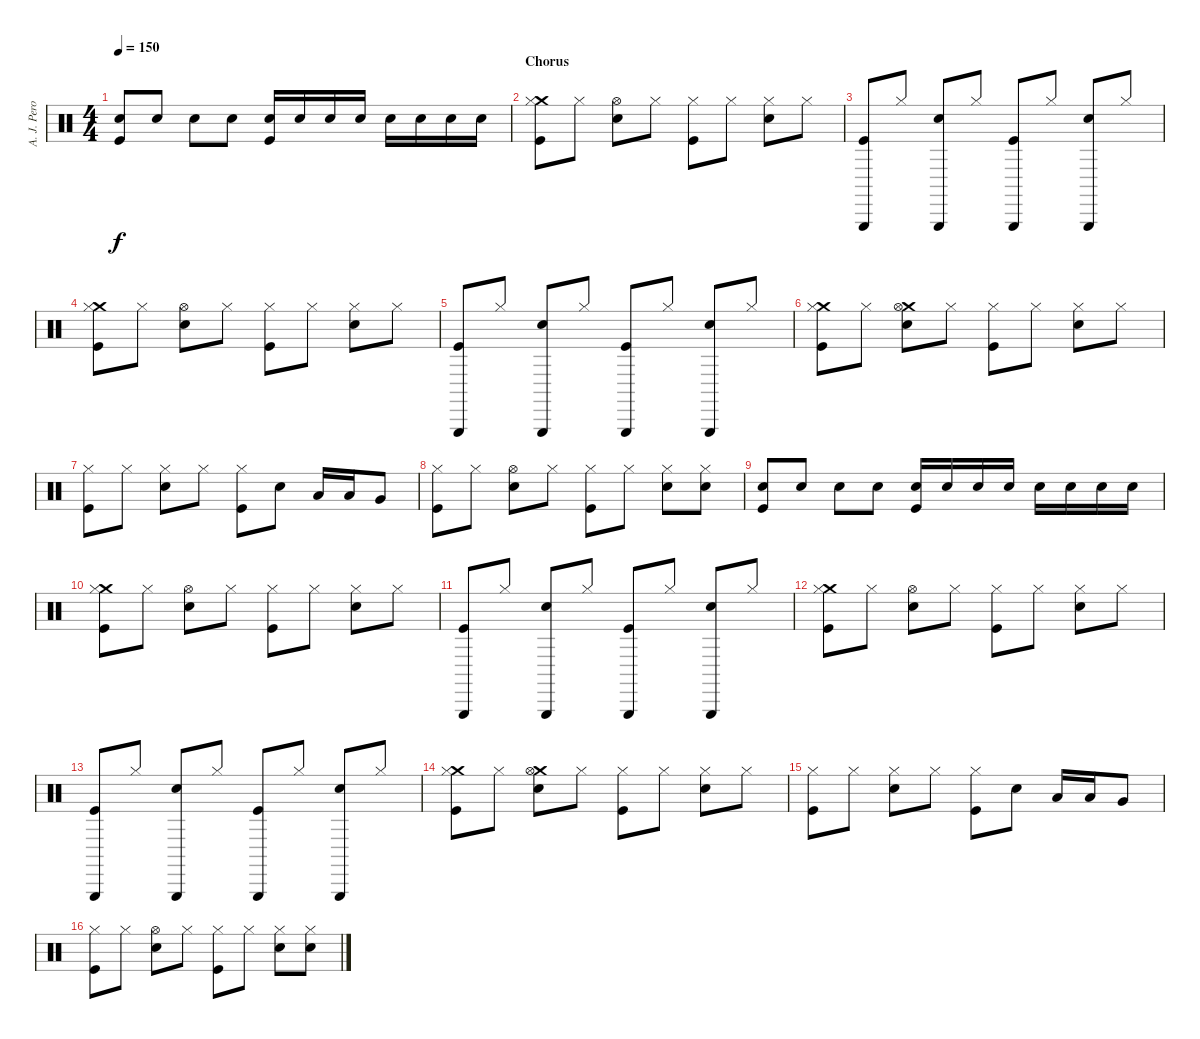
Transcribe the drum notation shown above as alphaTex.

\track ("A. J. Pero - Drums" "A. J. Pero") {instrument percussion}
\staff {score}
\articulation defaults
\ts (4 4)
\tempo 150
\clef neutral
\ks c
("Snare (hit) 2" "Kick (hit)").8{dy f} "Snare (hit) 2".8 "Snare (hit) 2".8 "Snare (hit) 2".8 ("Snare (hit) 2" "Kick (hit)").16 "Snare (hit) 2".16 "Snare (hit) 2".16 "Snare (hit) 2".16 "Snare (hit) 2".16 "Snare (hit) 2".16 "Snare (hit) 2".16 "Snare (hit) 2".16 |
\section ("" "Chorus")
("Crash medium (hit)" "Hi-Hat (closed)" "Kick (hit)").8 "Hi-Hat (closed)".8 ("Hi-Hat (open)" "Snare (hit) 2").8 "Hi-Hat (closed)".8 ("Hi-Hat (closed)" "Kick (hit)").8 "Hi-Hat (closed)".8 ("Hi-Hat (closed)" "Snare (hit) 2").8 "Hi-Hat (closed)".8 |
("Triangle (hit)" "Kick (hit)").8 "Hi-Hat (closed)".8 ("Triangle (hit)" "Snare (hit) 2").8 "Hi-Hat (closed)".8 ("Triangle (hit)" "Kick (hit)").8 "Hi-Hat (closed)".8 ("Triangle (hit)" "Snare (hit) 2").8 "Hi-Hat (closed)".8 |
("Crash medium (hit)" "Hi-Hat (closed)" "Kick (hit)").8 "Hi-Hat (closed)".8 ("Hi-Hat (open)" "Snare (hit) 2").8 "Hi-Hat (closed)".8 ("Hi-Hat (closed)" "Kick (hit)").8 "Hi-Hat (closed)".8 ("Hi-Hat (closed)" "Snare (hit) 2").8 "Hi-Hat (closed)".8 |
("Triangle (hit)" "Kick (hit)").8 "Hi-Hat (closed)".8 ("Triangle (hit)" "Snare (hit) 2").8 "Hi-Hat (closed)".8 ("Triangle (hit)" "Kick (hit)").8 "Hi-Hat (closed)".8 ("Triangle (hit)" "Snare (hit) 2").8 "Hi-Hat (closed)".8 |
("Crash medium (hit)" "Hi-Hat (closed)" "Kick (hit)").8 "Hi-Hat (closed)".8 ("Crash medium (hit)" "Hi-Hat (open)" "Snare (hit) 2").8 "Hi-Hat (closed)".8 ("Hi-Hat (closed)" "Kick (hit)").8 "Hi-Hat (closed)".8 ("Hi-Hat (closed)" "Snare (hit) 2").8 "Hi-Hat (closed)".8 |
("Hi-Hat (closed)" "Kick (hit)").8 "Hi-Hat (closed)".8 ("Hi-Hat (closed)" "Snare (hit) 2").8 "Hi-Hat (closed)".8 ("Hi-Hat (closed)" "Kick (hit)").8 "Snare (hit) 2".8 "Low Floor Tom (hit)".16 "Low Floor Tom (hit)".16 "Very Low Tom (hit)".8 |
("Hi-Hat (closed)" "Kick (hit)").8 "Hi-Hat (closed)".8 ("Hi-Hat (open)" "Snare (hit) 2").8 "Hi-Hat (closed)".8 ("Hi-Hat (closed)" "Kick (hit)").8 "Hi-Hat (closed)".8 ("Hi-Hat (closed)" "Snare (hit) 2").8 ("Hi-Hat (closed)" "Snare (hit) 2").8 |
("Snare (hit) 2" "Kick (hit)").8 "Snare (hit) 2".8 "Snare (hit) 2".8 "Snare (hit) 2".8 ("Snare (hit) 2" "Kick (hit)").16 "Snare (hit) 2".16 "Snare (hit) 2".16 "Snare (hit) 2".16 "Snare (hit) 2".16 "Snare (hit) 2".16 "Snare (hit) 2".16 "Snare (hit) 2".16 |
("Crash medium (hit)" "Hi-Hat (closed)" "Kick (hit)").8 "Hi-Hat (closed)".8 ("Hi-Hat (open)" "Snare (hit) 2").8 "Hi-Hat (closed)".8 ("Hi-Hat (closed)" "Kick (hit)").8 "Hi-Hat (closed)".8 ("Hi-Hat (closed)" "Snare (hit) 2").8 "Hi-Hat (closed)".8 |
("Triangle (hit)" "Kick (hit)").8 "Hi-Hat (closed)".8 ("Triangle (hit)" "Snare (hit) 2").8 "Hi-Hat (closed)".8 ("Triangle (hit)" "Kick (hit)").8 "Hi-Hat (closed)".8 ("Triangle (hit)" "Snare (hit) 2").8 "Hi-Hat (closed)".8 |
("Crash medium (hit)" "Hi-Hat (closed)" "Kick (hit)").8 "Hi-Hat (closed)".8 ("Hi-Hat (open)" "Snare (hit) 2").8 "Hi-Hat (closed)".8 ("Hi-Hat (closed)" "Kick (hit)").8 "Hi-Hat (closed)".8 ("Hi-Hat (closed)" "Snare (hit) 2").8 "Hi-Hat (closed)".8 |
("Triangle (hit)" "Kick (hit)").8 "Hi-Hat (closed)".8 ("Triangle (hit)" "Snare (hit) 2").8 "Hi-Hat (closed)".8 ("Triangle (hit)" "Kick (hit)").8 "Hi-Hat (closed)".8 ("Triangle (hit)" "Snare (hit) 2").8 "Hi-Hat (closed)".8 |
("Crash medium (hit)" "Hi-Hat (closed)" "Kick (hit)").8 "Hi-Hat (closed)".8 ("Crash medium (hit)" "Hi-Hat (open)" "Snare (hit) 2").8 "Hi-Hat (closed)".8 ("Hi-Hat (closed)" "Kick (hit)").8 "Hi-Hat (closed)".8 ("Hi-Hat (closed)" "Snare (hit) 2").8 "Hi-Hat (closed)".8 |
("Hi-Hat (closed)" "Kick (hit)").8 "Hi-Hat (closed)".8 ("Hi-Hat (closed)" "Snare (hit) 2").8 "Hi-Hat (closed)".8 ("Hi-Hat (closed)" "Kick (hit)").8 "Snare (hit) 2".8 "Low Floor Tom (hit)".16 "Low Floor Tom (hit)".16 "Very Low Tom (hit)".8 |
("Hi-Hat (closed)" "Kick (hit)").8 "Hi-Hat (closed)".8 ("Hi-Hat (open)" "Snare (hit) 2").8 "Hi-Hat (closed)".8 ("Hi-Hat (closed)" "Kick (hit)").8 "Hi-Hat (closed)".8 ("Hi-Hat (closed)" "Snare (hit) 2").8 ("Hi-Hat (closed)" "Snare (hit) 2").8
